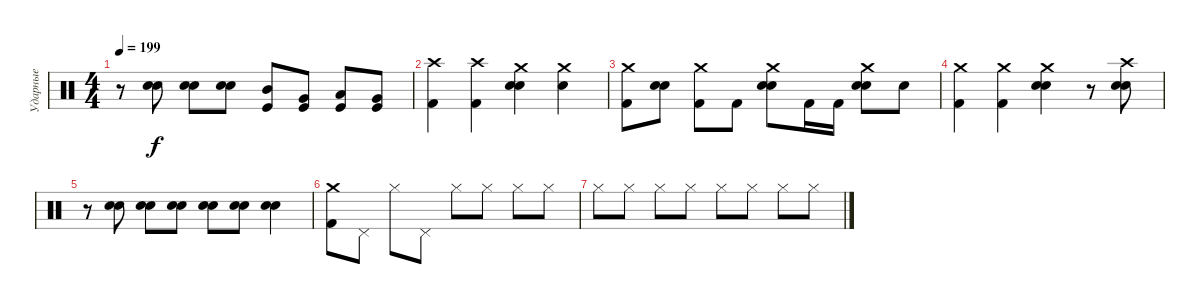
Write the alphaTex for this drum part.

\track ("Ударные" "Ударные") {instrument percussion}
\staff {score}
\articulation defaults
\ts (4 4)
\tempo 199
\clef neutral
\ks c
r.8{dy f} ("Electric Snare (hit)" "Snare (hit) 2").8 ("Electric Snare (hit)" "Snare (hit) 2").8 ("Electric Snare (hit)" "Snare (hit) 2").8 ("Mid Tom (hit)" "Kick (hit)").8 ("Very Low Tom (hit)" "Kick (hit)").8 ("Low Tom (hit)" "Kick (hit)").8 ("Very Low Tom (hit)" "Kick (hit)").8 |
("Crash high (hit)" "Kick (hit) 2").4 ("Crash high (hit)" "Kick (hit) 2").4 ("Crash medium (hit)" "Electric Snare (hit)" "Snare (hit) 2").4 ("Crash medium (hit)" "Electric Snare (hit)").4 |
("Crash medium (hit)" "Kick (hit) 2").8 ("Electric Snare (hit)" "Snare (hit) 2").8 ("Crash medium (hit)" "Kick (hit) 2").8 "Kick (hit) 2".8 ("Crash medium (hit)" "Electric Snare (hit)" "Snare (hit) 2").8 "Kick (hit) 2".16 "Kick (hit) 2".16 ("Crash medium (hit)" "Electric Snare (hit)" "Snare (hit) 2").8 "Electric Snare (hit)".8 |
("Crash medium (hit)" "Kick (hit) 2").4 ("Crash medium (hit)" "Kick (hit) 2").4 ("Crash medium (hit)" "Electric Snare (hit)" "Snare (hit) 2").4 r.8 ("Crash high (hit)" "Electric Snare (hit)" "Snare (hit) 2").8 |
r.8 ("Electric Snare (hit)" "Snare (hit) 2").8 ("Electric Snare (hit)" "Snare (hit) 2").8 ("Electric Snare (hit)" "Snare (hit) 2").8 ("Electric Snare (hit)" "Snare (hit) 2").8 ("Electric Snare (hit)" "Snare (hit) 2").8 ("Electric Snare (hit)" "Snare (hit) 2").4 |
("Crash medium (hit)" "Kick (hit) 2").8 "Pedal Hi-Hat (hit)".8 "Hi-Hat (closed)".8 "Pedal Hi-Hat (hit)".8 "Hi-Hat (closed)".8 "Hi-Hat (closed)".8 "Hi-Hat (closed)".8 "Hi-Hat (closed)".8 |
"Hi-Hat (closed)".8 "Hi-Hat (closed)".8 "Hi-Hat (closed)".8 "Hi-Hat (closed)".8 "Hi-Hat (closed)".8 "Hi-Hat (closed)".8 "Hi-Hat (closed)".8 "Hi-Hat (closed)".8
